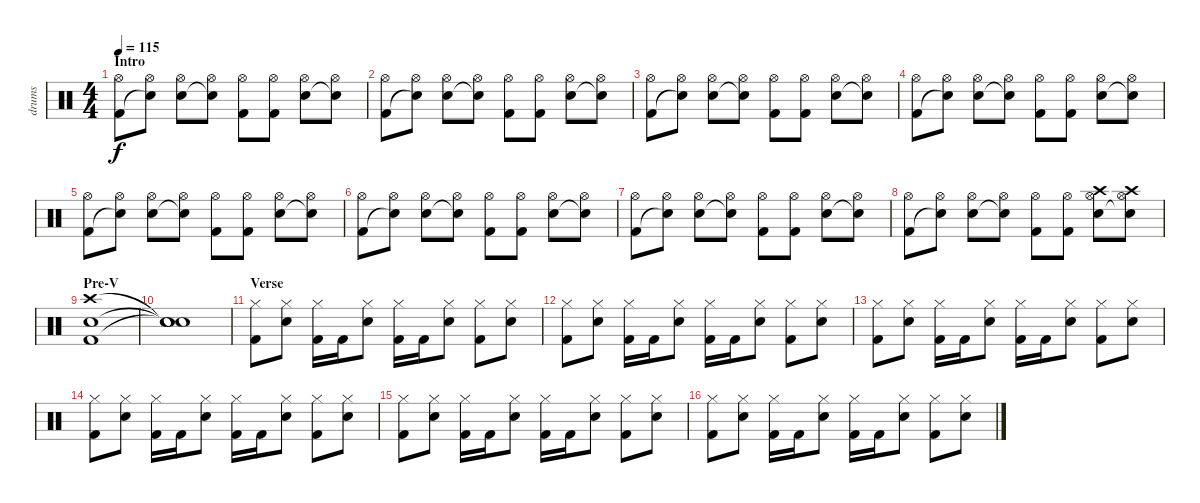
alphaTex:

\track ("drums" "drums") {instrument percussion}
\staff {score}
\articulation defaults
\ts (4 4)
\section ("" "Intro")
\tempo 115
\clef neutral
\ks c
("Hi-Hat (open)" "Kick (hit) 2").8{dy f} ("Hi-Hat (open)" "Snare (hit)"{t}).8 ("Hi-Hat (open)" "Electric Snare (hit)").8 ("Hi-Hat (open)" "Snare (hit)"{t}).8 ("Hi-Hat (open)" "Kick (hit) 2").8 ("Hi-Hat (open)" "Kick (hit) 2").8 ("Hi-Hat (open)" "Electric Snare (hit)").8 ("Hi-Hat (open)" "Snare (hit)"{t}).8 |
("Hi-Hat (open)" "Kick (hit) 2").8 ("Hi-Hat (open)" "Snare (hit)"{t}).8 ("Hi-Hat (open)" "Electric Snare (hit)").8 ("Hi-Hat (open)" "Snare (hit)"{t}).8 ("Hi-Hat (open)" "Kick (hit) 2").8 ("Hi-Hat (open)" "Kick (hit) 2").8 ("Hi-Hat (open)" "Electric Snare (hit)").8 ("Hi-Hat (open)" "Snare (hit)"{t}).8 |
("Hi-Hat (open)" "Kick (hit) 2").8 ("Hi-Hat (open)" "Snare (hit)"{t}).8 ("Hi-Hat (open)" "Electric Snare (hit)").8 ("Hi-Hat (open)" "Snare (hit)"{t}).8 ("Hi-Hat (open)" "Kick (hit) 2").8 ("Hi-Hat (open)" "Kick (hit) 2").8 ("Hi-Hat (open)" "Electric Snare (hit)").8 ("Hi-Hat (open)" "Snare (hit)"{t}).8 |
("Hi-Hat (open)" "Kick (hit) 2").8 ("Hi-Hat (open)" "Snare (hit)"{t}).8 ("Hi-Hat (open)" "Electric Snare (hit)").8 ("Hi-Hat (open)" "Snare (hit)"{t}).8 ("Hi-Hat (open)" "Kick (hit) 2").8 ("Hi-Hat (open)" "Kick (hit) 2").8 ("Hi-Hat (open)" "Electric Snare (hit)").8 ("Hi-Hat (open)" "Snare (hit)"{t}).8 |
("Hi-Hat (open)" "Kick (hit) 2").8 ("Hi-Hat (open)" "Snare (hit)"{t}).8 ("Hi-Hat (open)" "Electric Snare (hit)").8 ("Hi-Hat (open)" "Snare (hit)"{t}).8 ("Hi-Hat (open)" "Kick (hit) 2").8 ("Hi-Hat (open)" "Kick (hit) 2").8 ("Hi-Hat (open)" "Electric Snare (hit)").8 ("Hi-Hat (open)" "Snare (hit)"{t}).8 |
("Hi-Hat (open)" "Kick (hit) 2").8 ("Hi-Hat (open)" "Snare (hit)"{t}).8 ("Hi-Hat (open)" "Electric Snare (hit)").8 ("Hi-Hat (open)" "Snare (hit)"{t}).8 ("Hi-Hat (open)" "Kick (hit) 2").8 ("Hi-Hat (open)" "Kick (hit) 2").8 ("Hi-Hat (open)" "Electric Snare (hit)").8 ("Hi-Hat (open)" "Snare (hit)"{t}).8 |
("Hi-Hat (open)" "Kick (hit) 2").8 ("Hi-Hat (open)" "Snare (hit)"{t}).8 ("Hi-Hat (open)" "Electric Snare (hit)").8 ("Hi-Hat (open)" "Snare (hit)"{t}).8 ("Hi-Hat (open)" "Kick (hit) 2").8 ("Hi-Hat (open)" "Kick (hit) 2").8 ("Hi-Hat (open)" "Electric Snare (hit)").8 ("Hi-Hat (open)" "Snare (hit)"{t}).8 |
("Hi-Hat (open)" "Kick (hit) 2").8 ("Hi-Hat (open)" "Snare (hit)"{t}).8 ("Hi-Hat (open)" "Electric Snare (hit)").8 ("Hi-Hat (open)" "Snare (hit)"{t}).8 ("Hi-Hat (open)" "Kick (hit) 2").8 ("Hi-Hat (open)" "Kick (hit) 2").8 ("Crash high (hit)" "Hi-Hat (open)" "Electric Snare (hit)").8 ("Crash high (hit)" "Hi-Hat (open)" "Snare (hit)"{t}).8 |
\section ("" "Pre-V")
("Crash high (hit)" "Electric Snare (hit)" "Kick (hit) 2").1 |
("Snare (hit)"{t} "Snare (hit)"{t} "Snare (hit)"{t}).1 |
\section ("" "Verse")
("Hi-Hat (closed)" "Kick (hit) 2").8 ("Hi-Hat (closed)" "Electric Snare (hit)").8 ("Hi-Hat (closed)" "Kick (hit) 2").16 "Kick (hit) 2".16 ("Hi-Hat (closed)" "Electric Snare (hit)").8 ("Hi-Hat (closed)" "Kick (hit) 2").16 "Kick (hit) 2".16 ("Hi-Hat (closed)" "Electric Snare (hit)").8 ("Hi-Hat (closed)" "Kick (hit) 2").8 ("Hi-Hat (closed)" "Electric Snare (hit)").8 |
("Hi-Hat (closed)" "Kick (hit) 2").8 ("Hi-Hat (closed)" "Electric Snare (hit)").8 ("Hi-Hat (closed)" "Kick (hit) 2").16 "Kick (hit) 2".16 ("Hi-Hat (closed)" "Electric Snare (hit)").8 ("Hi-Hat (closed)" "Kick (hit) 2").16 "Kick (hit) 2".16 ("Hi-Hat (closed)" "Electric Snare (hit)").8 ("Hi-Hat (closed)" "Kick (hit) 2").8 ("Hi-Hat (closed)" "Electric Snare (hit)").8 |
("Hi-Hat (closed)" "Kick (hit) 2").8 ("Hi-Hat (closed)" "Electric Snare (hit)").8 ("Hi-Hat (closed)" "Kick (hit) 2").16 "Kick (hit) 2".16 ("Hi-Hat (closed)" "Electric Snare (hit)").8 ("Hi-Hat (closed)" "Kick (hit) 2").16 "Kick (hit) 2".16 ("Hi-Hat (closed)" "Electric Snare (hit)").8 ("Hi-Hat (closed)" "Kick (hit) 2").8 ("Hi-Hat (closed)" "Electric Snare (hit)").8 |
("Hi-Hat (closed)" "Kick (hit) 2").8 ("Hi-Hat (closed)" "Electric Snare (hit)").8 ("Hi-Hat (closed)" "Kick (hit) 2").16 "Kick (hit) 2".16 ("Hi-Hat (closed)" "Electric Snare (hit)").8 ("Hi-Hat (closed)" "Kick (hit) 2").16 "Kick (hit) 2".16 ("Hi-Hat (closed)" "Electric Snare (hit)").8 ("Hi-Hat (closed)" "Kick (hit) 2").8 ("Hi-Hat (closed)" "Electric Snare (hit)").8 |
("Hi-Hat (closed)" "Kick (hit) 2").8 ("Hi-Hat (closed)" "Electric Snare (hit)").8 ("Hi-Hat (closed)" "Kick (hit) 2").16 "Kick (hit) 2".16 ("Hi-Hat (closed)" "Electric Snare (hit)").8 ("Hi-Hat (closed)" "Kick (hit) 2").16 "Kick (hit) 2".16 ("Hi-Hat (closed)" "Electric Snare (hit)").8 ("Hi-Hat (closed)" "Kick (hit) 2").8 ("Hi-Hat (closed)" "Electric Snare (hit)").8 |
("Hi-Hat (closed)" "Kick (hit) 2").8 ("Hi-Hat (closed)" "Electric Snare (hit)").8 ("Hi-Hat (closed)" "Kick (hit) 2").16 "Kick (hit) 2".16 ("Hi-Hat (closed)" "Electric Snare (hit)").8 ("Hi-Hat (closed)" "Kick (hit) 2").16 "Kick (hit) 2".16 ("Hi-Hat (closed)" "Electric Snare (hit)").8 ("Hi-Hat (closed)" "Kick (hit) 2").8 ("Hi-Hat (closed)" "Electric Snare (hit)").8
